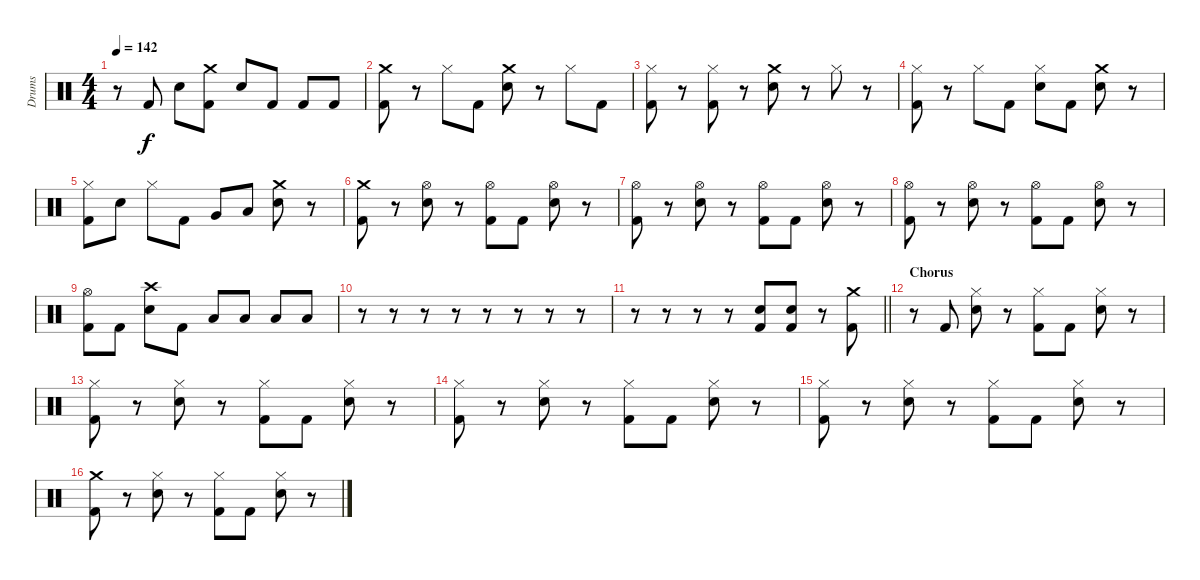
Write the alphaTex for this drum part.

\track ("Drums" "Drums") {instrument percussion}
\staff {score}
\articulation defaults
\ts (4 4)
\tempo 142
\clef neutral
\ks c
r.8{dy f} "Kick (hit) 2".8 "Electric Snare (hit)".8 ("Crash medium (hit)" "Kick (hit) 2").8 "Electric Snare (hit)".8 "Kick (hit) 2".8 "Kick (hit) 2".8 "Kick (hit) 2".8 |
("Crash medium (hit)" "Kick (hit) 2").8 r.8 "Hi-Hat (closed)".8 "Kick (hit) 2".8 ("Crash medium (hit)" "Electric Snare (hit)").8 r.8 "Hi-Hat (closed)".8 "Kick (hit) 2".8 |
("Hi-Hat (closed)" "Kick (hit) 2").8 r.8 ("Hi-Hat (closed)" "Kick (hit) 2").8 r.8 ("Crash medium (hit)" "Electric Snare (hit)").8 r.8 "Hi-Hat (closed)".8 r.8 |
("Hi-Hat (closed)" "Kick (hit) 2").8 r.8 "Hi-Hat (closed)".8 "Kick (hit) 2".8 ("Hi-Hat (closed)" "Electric Snare (hit)").8 "Kick (hit) 2".8 ("Crash medium (hit)" "Electric Snare (hit)").8 r.8 |
("Hi-Hat (closed)" "Kick (hit) 2").8 "Electric Snare (hit)".8 "Hi-Hat (closed)".8 "Kick (hit) 2".8 "Very Low Tom (hit)".8 "Low Floor Tom (hit)".8 ("Crash medium (hit)" "Electric Snare (hit)").8 r.8 |
("Crash medium (hit)" "Kick (hit) 2").8 r.8 ("Hi-Hat (open)" "Electric Snare (hit)").8 r.8 ("Hi-Hat (open)" "Kick (hit) 2").8 "Kick (hit) 2".8 ("Hi-Hat (open)" "Electric Snare (hit)").8 r.8 |
("Hi-Hat (open)" "Kick (hit) 2").8 r.8 ("Hi-Hat (open)" "Electric Snare (hit)").8 r.8 ("Hi-Hat (open)" "Kick (hit) 2").8 "Kick (hit) 2".8 ("Hi-Hat (open)" "Electric Snare (hit)").8 r.8 |
("Hi-Hat (open)" "Kick (hit) 2").8 r.8 ("Hi-Hat (open)" "Electric Snare (hit)").8 r.8 ("Hi-Hat (open)" "Kick (hit) 2").8 "Kick (hit) 2".8 ("Hi-Hat (open)" "Electric Snare (hit)").8 r.8 |
("Hi-Hat (open)" "Kick (hit) 2").8 "Kick (hit) 2".8 ("Crash high (hit)" "Electric Snare (hit)").8 "Kick (hit) 2".8 "Low Floor Tom (hit)".8 "Low Floor Tom (hit)".8 "Low Floor Tom (hit)".8 "Low Floor Tom (hit)".8 |
r.8 r.8 r.8 r.8 r.8 r.8 r.8 r.8 |
\barLineRight lightlight
r.8 r.8 r.8 r.8 ("Electric Snare (hit)" "Kick (hit) 2").8 ("Electric Snare (hit)" "Kick (hit) 2").8 r.8 ("Crash medium (hit)" "Kick (hit) 2").8 |
\section ("" "Chorus")
r.8 "Kick (hit) 2".8 ("Hi-Hat (closed)" "Electric Snare (hit)").8 r.8 ("Hi-Hat (closed)" "Kick (hit) 2").8 "Kick (hit) 2".8 ("Hi-Hat (closed)" "Electric Snare (hit)").8 r.8 |
("Hi-Hat (closed)" "Kick (hit) 2").8 r.8 ("Hi-Hat (closed)" "Electric Snare (hit)").8 r.8 ("Hi-Hat (closed)" "Kick (hit) 2").8 "Kick (hit) 2".8 ("Hi-Hat (closed)" "Electric Snare (hit)").8 r.8 |
("Hi-Hat (closed)" "Kick (hit) 2").8 r.8 ("Hi-Hat (closed)" "Electric Snare (hit)").8 r.8 ("Hi-Hat (closed)" "Kick (hit) 2").8 "Kick (hit) 2".8 ("Hi-Hat (closed)" "Electric Snare (hit)").8 r.8 |
("Hi-Hat (closed)" "Kick (hit) 2").8 r.8 ("Hi-Hat (closed)" "Electric Snare (hit)").8 r.8 ("Hi-Hat (closed)" "Kick (hit) 2").8 "Kick (hit) 2".8 ("Hi-Hat (closed)" "Electric Snare (hit)").8 r.8 |
("Crash medium (hit)" "Kick (hit) 2").8 r.8 ("Hi-Hat (closed)" "Electric Snare (hit)").8 r.8 ("Hi-Hat (closed)" "Kick (hit) 2").8 "Kick (hit) 2".8 ("Hi-Hat (closed)" "Electric Snare (hit)").8 r.8
